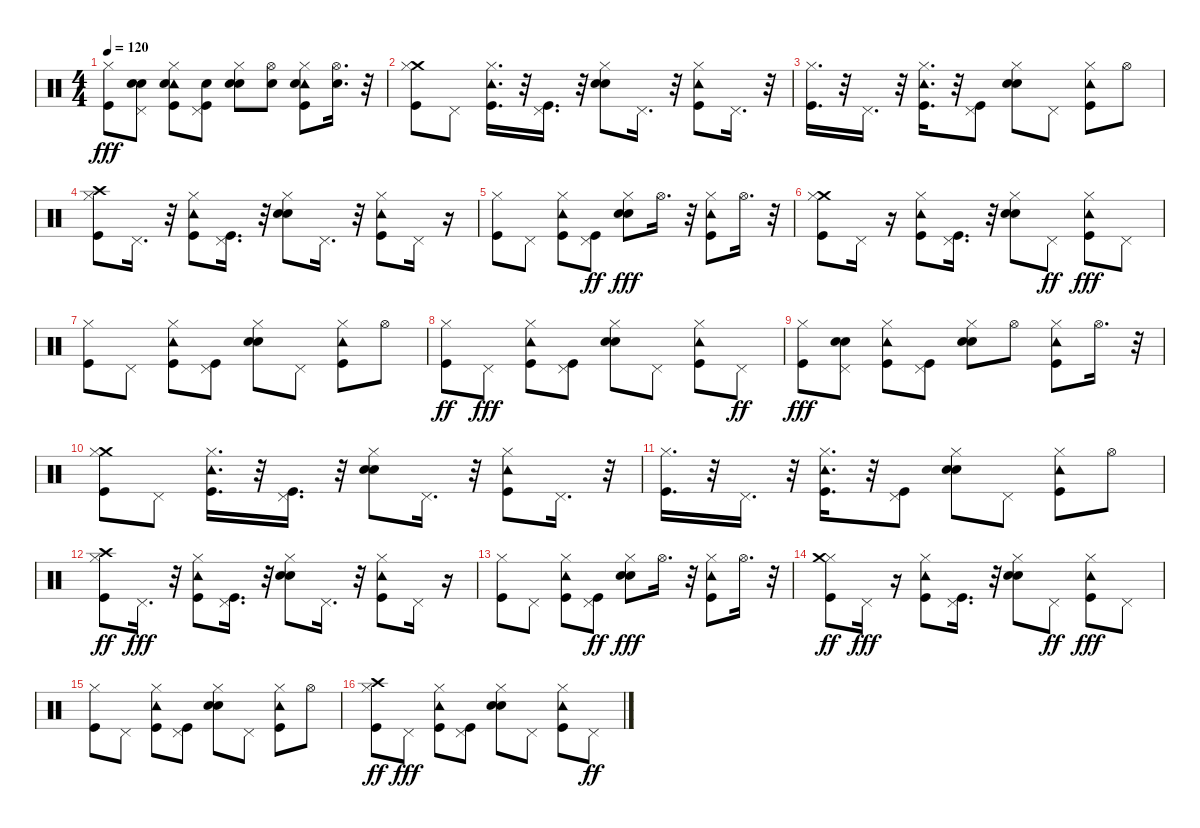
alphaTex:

\track "" {instrument percussion}
\staff {score}
\articulation defaults
\ts (4 4)
\tempo 120
\clef neutral
\ks c
("Hi-Hat (closed)" "Kick (hit)").8{dy fff} ("Pedal Hi-Hat (hit)" "Hand Clap (hit)" "Snare (hit) 2").8 ("Tambourine (hit)" "Hi-Hat (closed)" "Kick (hit)" "Snare (hit) 2").8 ("Pedal Hi-Hat (hit)" "Kick (hit)" "Snare (hit) 2").8 ("Hi-Hat (closed)" "Hand Clap (hit)" "Snare (hit) 2").8 ("Hi-Hat (open)" "Snare (hit) 2").8 ("Tambourine (hit)" "Hi-Hat (closed)" "Kick (hit)" "Snare (hit) 2").8 ("Hi-Hat (open)" "Snare (hit) 2").16{d} r.32 |
("Crash medium (hit)" "Kick (hit)" "Hi-Hat (closed)").8 "Pedal Hi-Hat (hit)".8 ("Hi-Hat (closed)" "Kick (hit)" "Tambourine (hit)").16{d} r.32 ("Pedal Hi-Hat (hit)" "Kick (hit)").16{d} r.32 ("Hand Clap (hit)" "Hi-Hat (closed)" "Snare (hit) 2").8 "Pedal Hi-Hat (hit)".16{d} r.32 ("Hi-Hat (closed)" "Kick (hit)" "Tambourine (hit)").8 "Pedal Hi-Hat (hit)".16{d} r.32 |
("Hi-Hat (closed)" "Kick (hit)").16{d} r.32 "Pedal Hi-Hat (hit)".16{d} r.32 ("Hi-Hat (closed)" "Kick (hit)" "Tambourine (hit)").16{d} r.32 ("Pedal Hi-Hat (hit)" "Kick (hit)").8 ("Hi-Hat (closed)" "Hand Clap (hit)" "Snare (hit) 2").8 "Pedal Hi-Hat (hit)".8 ("Hi-Hat (closed)" "Kick (hit)" "Tambourine (hit)").8 "Hi-Hat (open)".8 |
("Crash high (hit)" "Hi-Hat (closed)" "Kick (hit)").8 "Pedal Hi-Hat (hit)".16{d} r.32 ("Tambourine (hit)" "Kick (hit)" "Hi-Hat (closed)").8 ("Pedal Hi-Hat (hit)" "Kick (hit)").16{d} r.32 ("Hi-Hat (closed)" "Hand Clap (hit)" "Snare (hit) 2").8 "Pedal Hi-Hat (hit)".16{d} r.32 ("Tambourine (hit)" "Hi-Hat (closed)" "Kick (hit)").8 "Pedal Hi-Hat (hit)".16 r.16 |
("Kick (hit)" "Hi-Hat (closed)").8 "Pedal Hi-Hat (hit)".8 ("Tambourine (hit)" "Hi-Hat (closed)" "Kick (hit)").8 ("Kick (hit)" "Pedal Hi-Hat (hit)").8{dy ff} ("Hi-Hat (closed)" "Hand Clap (hit)" "Snare (hit) 2").8{dy fff} "Hi-Hat (open)".16{d} r.32 ("Hi-Hat (closed)" "Kick (hit)" "Tambourine (hit)").8 "Hi-Hat (open)".16{d} r.32 |
("Crash medium (hit)" "Kick (hit)" "Hi-Hat (closed)").8 "Pedal Hi-Hat (hit)".16 r.16 ("Kick (hit)" "Hi-Hat (closed)" "Tambourine (hit)").8 ("Kick (hit)" "Pedal Hi-Hat (hit)").16{d} r.32 ("Hand Clap (hit)" "Hi-Hat (closed)" "Snare (hit) 2").8 "Pedal Hi-Hat (hit)".8{dy ff} ("Hi-Hat (closed)" "Kick (hit)" "Tambourine (hit)").8{dy fff} "Pedal Hi-Hat (hit)".8 |
("Kick (hit)" "Hi-Hat (closed)").8 "Pedal Hi-Hat (hit)".8 ("Tambourine (hit)" "Hi-Hat (closed)" "Kick (hit)").8 ("Kick (hit)" "Pedal Hi-Hat (hit)").8 ("Hi-Hat (closed)" "Hand Clap (hit)" "Snare (hit) 2").8 "Pedal Hi-Hat (hit)".8 ("Tambourine (hit)" "Hi-Hat (closed)" "Kick (hit)").8 "Hi-Hat (open)".8 |
("Kick (hit)" "Hi-Hat (closed)").8{dy ff} "Pedal Hi-Hat (hit)".8{dy fff} ("Kick (hit)" "Hi-Hat (closed)" "Tambourine (hit)").8 ("Kick (hit)" "Pedal Hi-Hat (hit)").8 ("Hand Clap (hit)" "Hi-Hat (closed)" "Snare (hit) 2").8 "Pedal Hi-Hat (hit)".8 ("Tambourine (hit)" "Kick (hit)" "Hi-Hat (closed)").8 "Pedal Hi-Hat (hit)".8{dy ff} |
("Hi-Hat (closed)" "Kick (hit)").8{dy fff} ("Pedal Hi-Hat (hit)" "Hand Clap (hit)" "Snare (hit) 2").8 ("Tambourine (hit)" "Hi-Hat (closed)" "Kick (hit)").8 ("Pedal Hi-Hat (hit)" "Kick (hit)").8 ("Hi-Hat (closed)" "Hand Clap (hit)" "Snare (hit) 2").8 "Hi-Hat (open)".8 ("Tambourine (hit)" "Hi-Hat (closed)" "Kick (hit)").8 "Hi-Hat (open)".16{d} r.32 |
("Crash medium (hit)" "Kick (hit)" "Hi-Hat (closed)").8 "Pedal Hi-Hat (hit)".8 ("Hi-Hat (closed)" "Kick (hit)" "Tambourine (hit)").16{d} r.32 ("Pedal Hi-Hat (hit)" "Kick (hit)").16{d} r.32 ("Hand Clap (hit)" "Hi-Hat (closed)" "Snare (hit) 2").8 "Pedal Hi-Hat (hit)".16{d} r.32 ("Hi-Hat (closed)" "Kick (hit)" "Tambourine (hit)").8 "Pedal Hi-Hat (hit)".16{d} r.32 |
("Hi-Hat (closed)" "Kick (hit)").16{d} r.32 "Pedal Hi-Hat (hit)".16{d} r.32 ("Hi-Hat (closed)" "Kick (hit)" "Tambourine (hit)").16{d} r.32 ("Pedal Hi-Hat (hit)" "Kick (hit)").8 ("Hi-Hat (closed)" "Hand Clap (hit)" "Snare (hit) 2").8 "Pedal Hi-Hat (hit)".8 ("Hi-Hat (closed)" "Kick (hit)" "Tambourine (hit)").8 "Hi-Hat (open)".8 |
("Hi-Hat (closed)" "Kick (hit)" "Crash high (hit)").8{dy ff} "Pedal Hi-Hat (hit)".16{d dy fff} r.32 ("Tambourine (hit)" "Kick (hit)" "Hi-Hat (closed)").8 ("Pedal Hi-Hat (hit)" "Kick (hit)").16{d} r.32 ("Hi-Hat (closed)" "Hand Clap (hit)" "Snare (hit) 2").8 "Pedal Hi-Hat (hit)".16{d} r.32 ("Tambourine (hit)" "Hi-Hat (closed)" "Kick (hit)").8 "Pedal Hi-Hat (hit)".16 r.16 |
("Kick (hit)" "Hi-Hat (closed)").8 "Pedal Hi-Hat (hit)".8 ("Tambourine (hit)" "Hi-Hat (closed)" "Kick (hit)").8 ("Kick (hit)" "Pedal Hi-Hat (hit)").8{dy ff} ("Hi-Hat (closed)" "Hand Clap (hit)" "Snare (hit) 2").8{dy fff} "Hi-Hat (open)".16{d} r.32 ("Hi-Hat (closed)" "Kick (hit)" "Tambourine (hit)").8 "Hi-Hat (open)".16{d} r.32 |
("Kick (hit)" "Hi-Hat (closed)" "Crash medium (hit)").8{dy ff} "Pedal Hi-Hat (hit)".16{dy fff} r.16 ("Kick (hit)" "Hi-Hat (closed)" "Tambourine (hit)").8 ("Kick (hit)" "Pedal Hi-Hat (hit)").16{d} r.32 ("Hand Clap (hit)" "Hi-Hat (closed)" "Snare (hit) 2").8 "Pedal Hi-Hat (hit)".8{dy ff} ("Hi-Hat (closed)" "Kick (hit)" "Tambourine (hit)").8{dy fff} "Pedal Hi-Hat (hit)".8 |
("Kick (hit)" "Hi-Hat (closed)").8 "Pedal Hi-Hat (hit)".8 ("Tambourine (hit)" "Hi-Hat (closed)" "Kick (hit)").8 ("Kick (hit)" "Pedal Hi-Hat (hit)").8 ("Hi-Hat (closed)" "Hand Clap (hit)" "Snare (hit) 2").8 "Pedal Hi-Hat (hit)".8 ("Tambourine (hit)" "Hi-Hat (closed)" "Kick (hit)").8 "Hi-Hat (open)".8 |
("Crash high (hit)" "Kick (hit)" "Hi-Hat (closed)").8{dy ff} "Pedal Hi-Hat (hit)".8{dy fff} ("Kick (hit)" "Hi-Hat (closed)" "Tambourine (hit)").8 ("Kick (hit)" "Pedal Hi-Hat (hit)").8 ("Hand Clap (hit)" "Hi-Hat (closed)" "Snare (hit) 2").8 "Pedal Hi-Hat (hit)".8 ("Tambourine (hit)" "Kick (hit)" "Hi-Hat (closed)").8 "Pedal Hi-Hat (hit)".8{dy ff}
